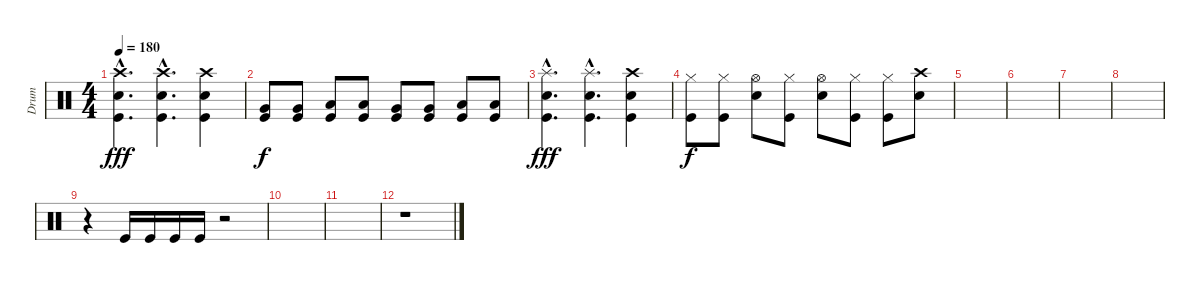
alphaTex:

\track ("Drum" "Drum") {instrument percussion}
\staff {score}
\articulation defaults
\ts (4 4)
\tempo 180
\clef neutral
\ks c
("Crash high (hit)"{hac} "Electric Snare (hit)"{hac} "Kick (hit)"{hac}).4{d dy fff} ("Crash high (hit)"{hac} "Electric Snare (hit)"{hac} "Kick (hit)"{hac}).4{d} ("Crash high (hit)" "Electric Snare (hit)" "Kick (hit)").4 |
("Very Low Tom (hit)" "Kick (hit)").8{dy f} ("Very Low Tom (hit)" "Kick (hit)").8 ("Low Floor Tom (hit)" "Kick (hit)").8 ("Low Floor Tom (hit)" "Kick (hit)").8 ("Very Low Tom (hit)" "Kick (hit)").8 ("Very Low Tom (hit)" "Kick (hit)").8 ("Low Tom (hit)" "Kick (hit)").8 ("Low Tom (hit)" "Kick (hit)").8 |
("Splash (hit)"{hac} "Electric Snare (hit)"{hac} "Kick (hit)"{hac}).4{d dy fff} ("Splash (hit)"{hac} "Electric Snare (hit)"{hac} "Kick (hit)"{hac}).4{d} ("Crash high (hit)" "Electric Snare (hit)" "Kick (hit)").4 |
("Hi-Hat (closed)" "Kick (hit)").8{dy f} ("Hi-Hat (closed)" "Kick (hit)").8 ("Hi-Hat (open)" "Electric Snare (hit)").8 ("Hi-Hat (closed)" "Kick (hit)").8 ("Hi-Hat (open)" "Electric Snare (hit)").8 ("Hi-Hat (closed)" "Kick (hit)").8 ("Hi-Hat (closed)" "Kick (hit)").8 ("Crash high (hit)" "Electric Snare (hit)").8 |
|
|
|
|
r.4 "Kick (hit)".16 "Kick (hit)".16 "Kick (hit)".16 "Kick (hit)".16 r.2 |
|
|
r.1
